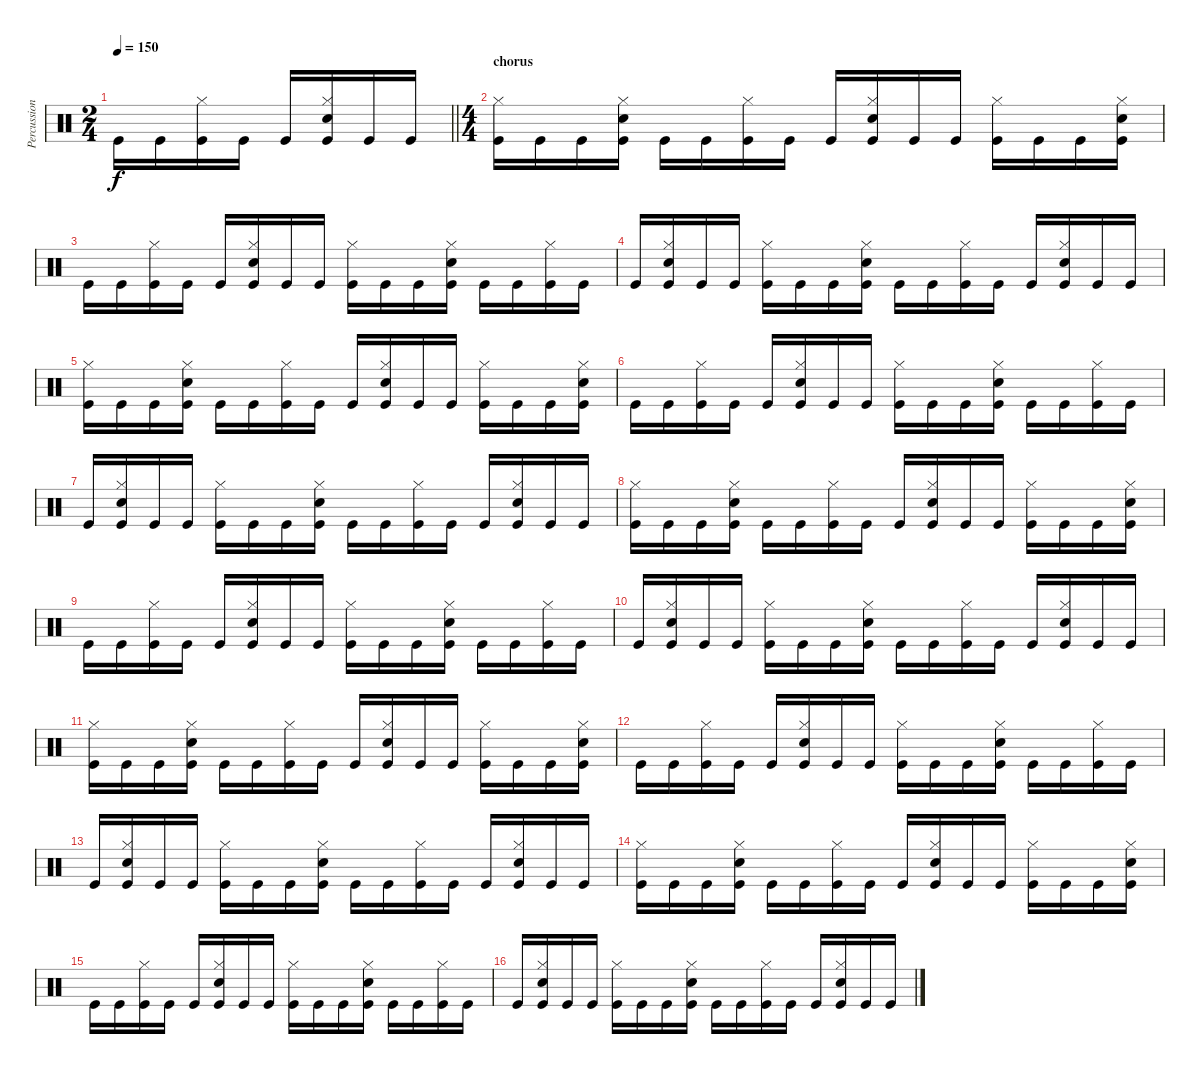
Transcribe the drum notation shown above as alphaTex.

\track ("Percussion" "Percussion") {instrument percussion}
\staff {score}
\articulation defaults
\ts (2 4)
\tempo 150
\clef neutral
\barLineRight lightlight
\ks c "Kick (hit)".16{dy f} "Kick (hit)".16
("Hi-Hat (closed)" "Kick (hit)").16 "Kick (hit)".16 "Kick (hit)".16 ("Hi-Hat (closed)" "Kick (hit)" "Snare (hit) 2").16 "Kick (hit)".16 "Kick (hit)".16 |
\ts (4 4)
\section ("" "chorus")
("Hi-Hat (closed)" "Kick (hit)").16 "Kick (hit)".16 "Kick (hit)".16 ("Hi-Hat (closed)" "Kick (hit)" "Snare (hit) 2").16 "Kick (hit)".16 "Kick (hit)".16 ("Hi-Hat (closed)" "Kick (hit)").16 "Kick (hit)".16 "Kick (hit)".16 ("Hi-Hat (closed)" "Kick (hit)" "Snare (hit) 2").16 "Kick (hit)".16 "Kick (hit)".16 ("Hi-Hat (closed)" "Kick (hit)").16 "Kick (hit)".16 "Kick (hit)".16 ("Hi-Hat (closed)" "Kick (hit)" "Snare (hit) 2").16 |
"Kick (hit)".16 "Kick (hit)".16 ("Hi-Hat (closed)" "Kick (hit)").16 "Kick (hit)".16 "Kick (hit)".16 ("Hi-Hat (closed)" "Kick (hit)" "Snare (hit) 2").16 "Kick (hit)".16 "Kick (hit)".16 ("Hi-Hat (closed)" "Kick (hit)").16 "Kick (hit)".16 "Kick (hit)".16 ("Hi-Hat (closed)" "Kick (hit)" "Snare (hit) 2").16 "Kick (hit)".16 "Kick (hit)".16 ("Hi-Hat (closed)" "Kick (hit)").16 "Kick (hit)".16 |
"Kick (hit)".16 ("Hi-Hat (closed)" "Kick (hit)" "Snare (hit) 2").16 "Kick (hit)".16 "Kick (hit)".16 ("Hi-Hat (closed)" "Kick (hit)").16 "Kick (hit)".16 "Kick (hit)".16 ("Hi-Hat (closed)" "Kick (hit)" "Snare (hit) 2").16 "Kick (hit)".16 "Kick (hit)".16 ("Hi-Hat (closed)" "Kick (hit)").16 "Kick (hit)".16 "Kick (hit)".16 ("Hi-Hat (closed)" "Kick (hit)" "Snare (hit) 2").16 "Kick (hit)".16 "Kick (hit)".16 |
("Hi-Hat (closed)" "Kick (hit)").16 "Kick (hit)".16 "Kick (hit)".16 ("Hi-Hat (closed)" "Kick (hit)" "Snare (hit) 2").16 "Kick (hit)".16 "Kick (hit)".16 ("Hi-Hat (closed)" "Kick (hit)").16 "Kick (hit)".16 "Kick (hit)".16 ("Hi-Hat (closed)" "Kick (hit)" "Snare (hit) 2").16 "Kick (hit)".16 "Kick (hit)".16 ("Hi-Hat (closed)" "Kick (hit)").16 "Kick (hit)".16 "Kick (hit)".16 ("Hi-Hat (closed)" "Kick (hit)" "Snare (hit) 2").16 |
"Kick (hit)".16 "Kick (hit)".16 ("Hi-Hat (closed)" "Kick (hit)").16 "Kick (hit)".16 "Kick (hit)".16 ("Hi-Hat (closed)" "Kick (hit)" "Snare (hit) 2").16 "Kick (hit)".16 "Kick (hit)".16 ("Hi-Hat (closed)" "Kick (hit)").16 "Kick (hit)".16 "Kick (hit)".16 ("Hi-Hat (closed)" "Kick (hit)" "Snare (hit) 2").16 "Kick (hit)".16 "Kick (hit)".16 ("Hi-Hat (closed)" "Kick (hit)").16 "Kick (hit)".16 |
"Kick (hit)".16 ("Hi-Hat (closed)" "Kick (hit)" "Snare (hit) 2").16 "Kick (hit)".16 "Kick (hit)".16 ("Hi-Hat (closed)" "Kick (hit)").16 "Kick (hit)".16 "Kick (hit)".16 ("Hi-Hat (closed)" "Kick (hit)" "Snare (hit) 2").16 "Kick (hit)".16 "Kick (hit)".16 ("Hi-Hat (closed)" "Kick (hit)").16 "Kick (hit)".16 "Kick (hit)".16 ("Hi-Hat (closed)" "Kick (hit)" "Snare (hit) 2").16 "Kick (hit)".16 "Kick (hit)".16 |
("Hi-Hat (closed)" "Kick (hit)").16 "Kick (hit)".16 "Kick (hit)".16 ("Hi-Hat (closed)" "Kick (hit)" "Snare (hit) 2").16 "Kick (hit)".16 "Kick (hit)".16 ("Hi-Hat (closed)" "Kick (hit)").16 "Kick (hit)".16 "Kick (hit)".16 ("Hi-Hat (closed)" "Kick (hit)" "Snare (hit) 2").16 "Kick (hit)".16 "Kick (hit)".16 ("Hi-Hat (closed)" "Kick (hit)").16 "Kick (hit)".16 "Kick (hit)".16 ("Hi-Hat (closed)" "Kick (hit)" "Snare (hit) 2").16 |
"Kick (hit)".16 "Kick (hit)".16 ("Hi-Hat (closed)" "Kick (hit)").16 "Kick (hit)".16 "Kick (hit)".16 ("Hi-Hat (closed)" "Kick (hit)" "Snare (hit) 2").16 "Kick (hit)".16 "Kick (hit)".16 ("Hi-Hat (closed)" "Kick (hit)").16 "Kick (hit)".16 "Kick (hit)".16 ("Hi-Hat (closed)" "Kick (hit)" "Snare (hit) 2").16 "Kick (hit)".16 "Kick (hit)".16 ("Hi-Hat (closed)" "Kick (hit)").16 "Kick (hit)".16 |
"Kick (hit)".16 ("Hi-Hat (closed)" "Kick (hit)" "Snare (hit) 2").16 "Kick (hit)".16 "Kick (hit)".16 ("Hi-Hat (closed)" "Kick (hit)").16 "Kick (hit)".16 "Kick (hit)".16 ("Hi-Hat (closed)" "Kick (hit)" "Snare (hit) 2").16 "Kick (hit)".16 "Kick (hit)".16 ("Hi-Hat (closed)" "Kick (hit)").16 "Kick (hit)".16 "Kick (hit)".16 ("Hi-Hat (closed)" "Kick (hit)" "Snare (hit) 2").16 "Kick (hit)".16 "Kick (hit)".16 |
("Hi-Hat (closed)" "Kick (hit)").16 "Kick (hit)".16 "Kick (hit)".16 ("Hi-Hat (closed)" "Kick (hit)" "Snare (hit) 2").16 "Kick (hit)".16 "Kick (hit)".16 ("Hi-Hat (closed)" "Kick (hit)").16 "Kick (hit)".16 "Kick (hit)".16 ("Hi-Hat (closed)" "Kick (hit)" "Snare (hit) 2").16 "Kick (hit)".16 "Kick (hit)".16 ("Hi-Hat (closed)" "Kick (hit)").16 "Kick (hit)".16 "Kick (hit)".16 ("Hi-Hat (closed)" "Kick (hit)" "Snare (hit) 2").16 |
"Kick (hit)".16 "Kick (hit)".16 ("Hi-Hat (closed)" "Kick (hit)").16 "Kick (hit)".16 "Kick (hit)".16 ("Hi-Hat (closed)" "Kick (hit)" "Snare (hit) 2").16 "Kick (hit)".16 "Kick (hit)".16 ("Hi-Hat (closed)" "Kick (hit)").16 "Kick (hit)".16 "Kick (hit)".16 ("Hi-Hat (closed)" "Kick (hit)" "Snare (hit) 2").16 "Kick (hit)".16 "Kick (hit)".16 ("Hi-Hat (closed)" "Kick (hit)").16 "Kick (hit)".16 |
"Kick (hit)".16 ("Hi-Hat (closed)" "Kick (hit)" "Snare (hit) 2").16 "Kick (hit)".16 "Kick (hit)".16 ("Hi-Hat (closed)" "Kick (hit)").16 "Kick (hit)".16 "Kick (hit)".16 ("Hi-Hat (closed)" "Kick (hit)" "Snare (hit) 2").16 "Kick (hit)".16 "Kick (hit)".16 ("Hi-Hat (closed)" "Kick (hit)").16 "Kick (hit)".16 "Kick (hit)".16 ("Hi-Hat (closed)" "Kick (hit)" "Snare (hit) 2").16 "Kick (hit)".16 "Kick (hit)".16 |
("Hi-Hat (closed)" "Kick (hit)").16 "Kick (hit)".16 "Kick (hit)".16 ("Hi-Hat (closed)" "Kick (hit)" "Snare (hit) 2").16 "Kick (hit)".16 "Kick (hit)".16 ("Hi-Hat (closed)" "Kick (hit)").16 "Kick (hit)".16 "Kick (hit)".16 ("Hi-Hat (closed)" "Kick (hit)" "Snare (hit) 2").16 "Kick (hit)".16 "Kick (hit)".16 ("Hi-Hat (closed)" "Kick (hit)").16 "Kick (hit)".16 "Kick (hit)".16 ("Hi-Hat (closed)" "Kick (hit)" "Snare (hit) 2").16 |
"Kick (hit)".16 "Kick (hit)".16 ("Hi-Hat (closed)" "Kick (hit)").16 "Kick (hit)".16 "Kick (hit)".16 ("Hi-Hat (closed)" "Kick (hit)" "Snare (hit) 2").16 "Kick (hit)".16 "Kick (hit)".16 ("Hi-Hat (closed)" "Kick (hit)").16 "Kick (hit)".16 "Kick (hit)".16 ("Hi-Hat (closed)" "Kick (hit)" "Snare (hit) 2").16 "Kick (hit)".16 "Kick (hit)".16 ("Hi-Hat (closed)" "Kick (hit)").16 "Kick (hit)".16 |
"Kick (hit)".16 ("Hi-Hat (closed)" "Kick (hit)" "Snare (hit) 2").16 "Kick (hit)".16 "Kick (hit)".16 ("Hi-Hat (closed)" "Kick (hit)").16 "Kick (hit)".16 "Kick (hit)".16 ("Hi-Hat (closed)" "Kick (hit)" "Snare (hit) 2").16 "Kick (hit)".16 "Kick (hit)".16 ("Hi-Hat (closed)" "Kick (hit)").16 "Kick (hit)".16 "Kick (hit)".16 ("Hi-Hat (closed)" "Kick (hit)" "Snare (hit) 2").16 "Kick (hit)".16 "Kick (hit)".16
